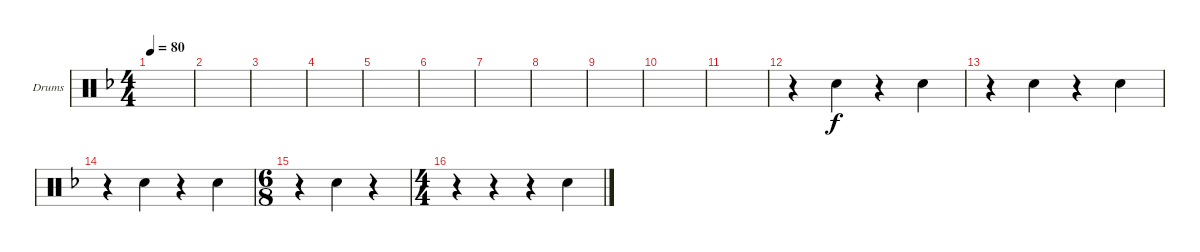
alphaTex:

\defaultSystemsLayout 4
\bracketExtendMode groupsimilarinstruments
\firstSystemTrackNameOrientation horizontal
\otherSystemsTrackNameOrientation horizontal
\track ("Drumkit" "Drums") {instrument percussion}
\staff {score}
\articulation defaults
\ts (4 4)
\tempo 80
\clef neutral
\ks f
|
|
|
|
|
|
|
|
|
|
|
r.4 "Snare (hit) 2".4 r.4 "Snare (hit) 2".4 |
r.4 "Snare (hit) 2".4 r.4 "Snare (hit) 2".4 |
r.4 "Snare (hit) 2".4 r.4 "Snare (hit) 2".4 |
\ts (6 8)
r.4 "Snare (hit) 2".4 r.4 |
\ts (4 4)
r.4 r.4 r.4 "Snare (hit) 2".4
